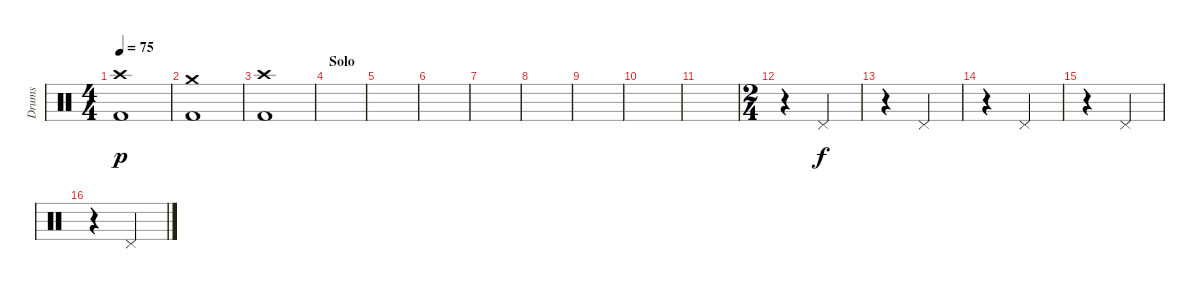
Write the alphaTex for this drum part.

\track ("Drums" "Drums") {instrument percussion}
\staff {score}
\articulation defaults
\ts (4 4)
\tempo 75
\clef neutral
\ks c
("Kick (hit) 2" "Crash high (hit)").1{dy p} |
("Kick (hit) 2" "Crash medium (hit)").1 |
("Kick (hit) 2" "Crash high (hit)").1 |
\section ("" "Solo")
|
|
|
|
|
|
|
|
\ts (2 4)
r.4 "Pedal Hi-Hat (hit)".4{dy f} |
r.4 "Pedal Hi-Hat (hit)".4 |
r.4 "Pedal Hi-Hat (hit)".4 |
r.4 "Pedal Hi-Hat (hit)".4 |
r.4 "Pedal Hi-Hat (hit)".4
